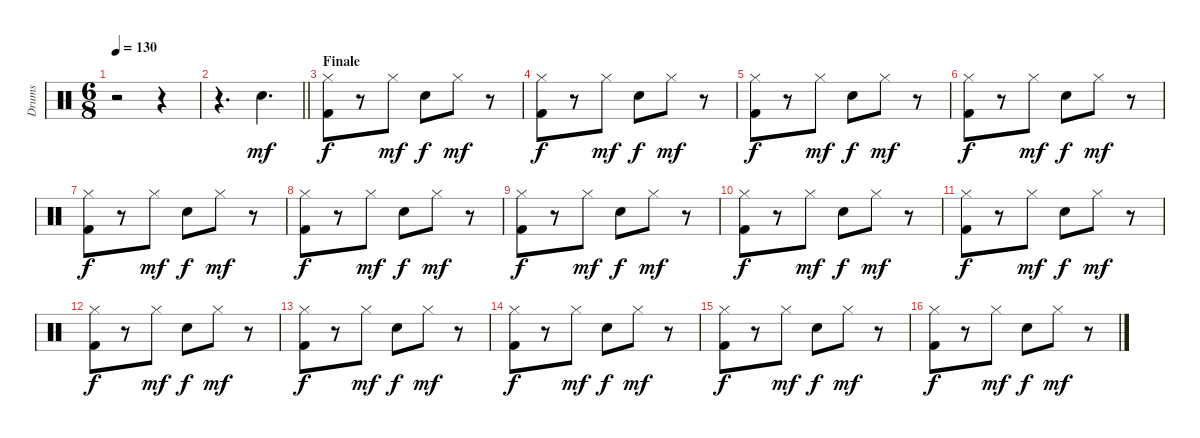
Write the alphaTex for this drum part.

\track ("Drums" "Drums") {instrument percussion}
\staff {score}
\articulation defaults
\ts (6 8)
\tempo 130
\clef neutral
\ks c
r.2{dy mf} r.4 |
\barLineRight lightlight
r.4{d} "Snare (hit) 2".4{d} |
\section ("" "Finale")
("Hi-Hat (closed)" "Kick (hit) 2").8{dy f} r.8 "Hi-Hat (closed)".8{dy mf} "Snare (hit) 2".8{dy f} "Hi-Hat (closed)".8{dy mf} r.8 |
("Hi-Hat (closed)" "Kick (hit) 2").8{dy f} r.8 "Hi-Hat (closed)".8{dy mf} "Snare (hit) 2".8{dy f} "Hi-Hat (closed)".8{dy mf} r.8 |
("Hi-Hat (closed)" "Kick (hit) 2").8{dy f} r.8 "Hi-Hat (closed)".8{dy mf} "Snare (hit) 2".8{dy f} "Hi-Hat (closed)".8{dy mf} r.8 |
("Hi-Hat (closed)" "Kick (hit) 2").8{dy f} r.8 "Hi-Hat (closed)".8{dy mf} "Snare (hit) 2".8{dy f} "Hi-Hat (closed)".8{dy mf} r.8 |
("Hi-Hat (closed)" "Kick (hit) 2").8{dy f} r.8 "Hi-Hat (closed)".8{dy mf} "Snare (hit) 2".8{dy f} "Hi-Hat (closed)".8{dy mf} r.8 |
("Hi-Hat (closed)" "Kick (hit) 2").8{dy f} r.8 "Hi-Hat (closed)".8{dy mf} "Snare (hit) 2".8{dy f} "Hi-Hat (closed)".8{dy mf} r.8 |
("Hi-Hat (closed)" "Kick (hit) 2").8{dy f} r.8 "Hi-Hat (closed)".8{dy mf} "Snare (hit) 2".8{dy f} "Hi-Hat (closed)".8{dy mf} r.8 |
("Hi-Hat (closed)" "Kick (hit) 2").8{dy f} r.8 "Hi-Hat (closed)".8{dy mf} "Snare (hit) 2".8{dy f} "Hi-Hat (closed)".8{dy mf} r.8 |
("Hi-Hat (closed)" "Kick (hit) 2").8{dy f} r.8 "Hi-Hat (closed)".8{dy mf} "Snare (hit) 2".8{dy f} "Hi-Hat (closed)".8{dy mf} r.8 |
("Hi-Hat (closed)" "Kick (hit) 2").8{dy f} r.8 "Hi-Hat (closed)".8{dy mf} "Snare (hit) 2".8{dy f} "Hi-Hat (closed)".8{dy mf} r.8 |
("Hi-Hat (closed)" "Kick (hit) 2").8{dy f} r.8 "Hi-Hat (closed)".8{dy mf} "Snare (hit) 2".8{dy f} "Hi-Hat (closed)".8{dy mf} r.8 |
("Hi-Hat (closed)" "Kick (hit) 2").8{dy f} r.8 "Hi-Hat (closed)".8{dy mf} "Snare (hit) 2".8{dy f} "Hi-Hat (closed)".8{dy mf} r.8 |
("Hi-Hat (closed)" "Kick (hit) 2").8{dy f} r.8 "Hi-Hat (closed)".8{dy mf} "Snare (hit) 2".8{dy f} "Hi-Hat (closed)".8{dy mf} r.8 |
("Hi-Hat (closed)" "Kick (hit) 2").8{dy f} r.8 "Hi-Hat (closed)".8{dy mf} "Snare (hit) 2".8{dy f} "Hi-Hat (closed)".8{dy mf} r.8
